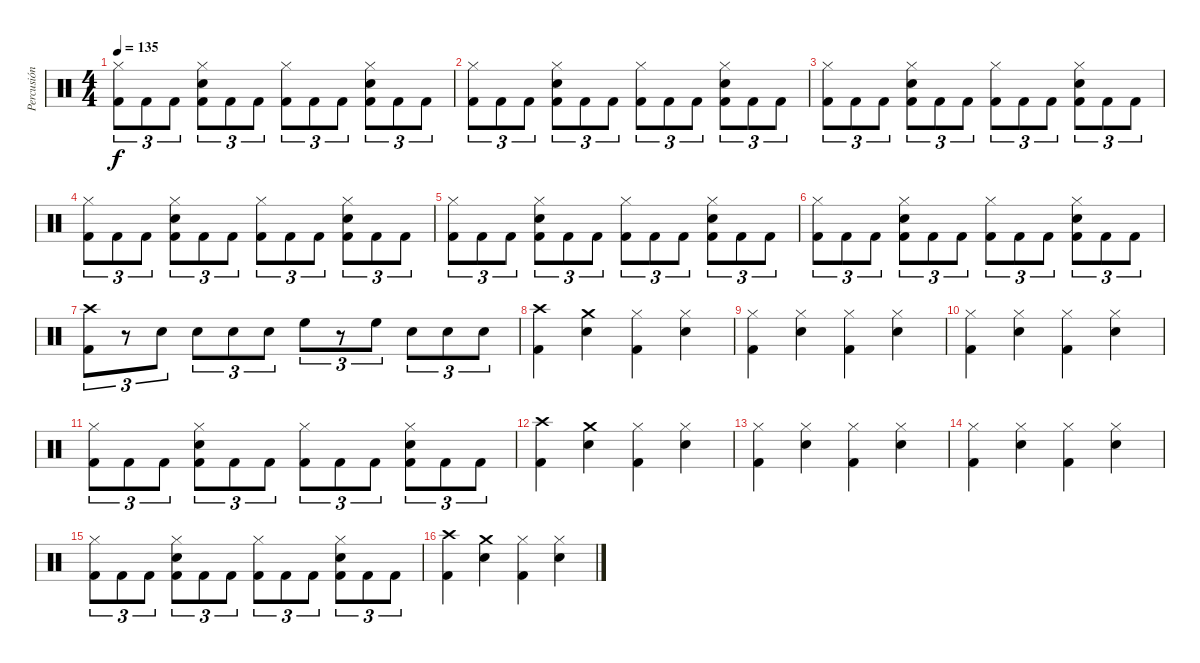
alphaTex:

\track ("Percusión" "Percusión") {instrument percussion}
\staff {score}
\articulation defaults
\ts (4 4)
\tempo 135
\clef neutral
\ks c
("Hi-Hat (closed)" "Kick (hit) 2").8{tu (3 2) dy f} "Kick (hit) 2".8{tu (3 2)} "Kick (hit) 2".8{tu (3 2)} ("Hi-Hat (closed)" "Snare (hit) 2" "Kick (hit) 2").8{tu (3 2)} "Kick (hit) 2".8{tu (3 2)} "Kick (hit) 2".8{tu (3 2)} ("Hi-Hat (closed)" "Kick (hit) 2").8{tu (3 2)} "Kick (hit) 2".8{tu (3 2)} "Kick (hit) 2".8{tu (3 2)} ("Hi-Hat (closed)" "Snare (hit) 2" "Kick (hit) 2").8{tu (3 2)} "Kick (hit) 2".8{tu (3 2)} "Kick (hit) 2".8{tu (3 2)} |
("Hi-Hat (closed)" "Kick (hit) 2").8{tu (3 2)} "Kick (hit) 2".8{tu (3 2)} "Kick (hit) 2".8{tu (3 2)} ("Hi-Hat (closed)" "Snare (hit) 2" "Kick (hit) 2").8{tu (3 2)} "Kick (hit) 2".8{tu (3 2)} "Kick (hit) 2".8{tu (3 2)} ("Hi-Hat (closed)" "Kick (hit) 2").8{tu (3 2)} "Kick (hit) 2".8{tu (3 2)} "Kick (hit) 2".8{tu (3 2)} ("Hi-Hat (closed)" "Snare (hit) 2" "Kick (hit) 2").8{tu (3 2)} "Kick (hit) 2".8{tu (3 2)} "Kick (hit) 2".8{tu (3 2)} |
("Hi-Hat (closed)" "Kick (hit) 2").8{tu (3 2)} "Kick (hit) 2".8{tu (3 2)} "Kick (hit) 2".8{tu (3 2)} ("Hi-Hat (closed)" "Snare (hit) 2" "Kick (hit) 2").8{tu (3 2)} "Kick (hit) 2".8{tu (3 2)} "Kick (hit) 2".8{tu (3 2)} ("Hi-Hat (closed)" "Kick (hit) 2").8{tu (3 2)} "Kick (hit) 2".8{tu (3 2)} "Kick (hit) 2".8{tu (3 2)} ("Hi-Hat (closed)" "Snare (hit) 2" "Kick (hit) 2").8{tu (3 2)} "Kick (hit) 2".8{tu (3 2)} "Kick (hit) 2".8{tu (3 2)} |
("Hi-Hat (closed)" "Kick (hit) 2").8{tu (3 2)} "Kick (hit) 2".8{tu (3 2)} "Kick (hit) 2".8{tu (3 2)} ("Hi-Hat (closed)" "Snare (hit) 2" "Kick (hit) 2").8{tu (3 2)} "Kick (hit) 2".8{tu (3 2)} "Kick (hit) 2".8{tu (3 2)} ("Hi-Hat (closed)" "Kick (hit) 2").8{tu (3 2)} "Kick (hit) 2".8{tu (3 2)} "Kick (hit) 2".8{tu (3 2)} ("Hi-Hat (closed)" "Snare (hit) 2" "Kick (hit) 2").8{tu (3 2)} "Kick (hit) 2".8{tu (3 2)} "Kick (hit) 2".8{tu (3 2)} |
("Hi-Hat (closed)" "Kick (hit) 2").8{tu (3 2)} "Kick (hit) 2".8{tu (3 2)} "Kick (hit) 2".8{tu (3 2)} ("Hi-Hat (closed)" "Snare (hit) 2" "Kick (hit) 2").8{tu (3 2)} "Kick (hit) 2".8{tu (3 2)} "Kick (hit) 2".8{tu (3 2)} ("Hi-Hat (closed)" "Kick (hit) 2").8{tu (3 2)} "Kick (hit) 2".8{tu (3 2)} "Kick (hit) 2".8{tu (3 2)} ("Hi-Hat (closed)" "Snare (hit) 2" "Kick (hit) 2").8{tu (3 2)} "Kick (hit) 2".8{tu (3 2)} "Kick (hit) 2".8{tu (3 2)} |
("Hi-Hat (closed)" "Kick (hit) 2").8{tu (3 2)} "Kick (hit) 2".8{tu (3 2)} "Kick (hit) 2".8{tu (3 2)} ("Hi-Hat (closed)" "Snare (hit) 2" "Kick (hit) 2").8{tu (3 2)} "Kick (hit) 2".8{tu (3 2)} "Kick (hit) 2".8{tu (3 2)} ("Hi-Hat (closed)" "Kick (hit) 2").8{tu (3 2)} "Kick (hit) 2".8{tu (3 2)} "Kick (hit) 2".8{tu (3 2)} ("Hi-Hat (closed)" "Snare (hit) 2" "Kick (hit) 2").8{tu (3 2)} "Kick (hit) 2".8{tu (3 2)} "Kick (hit) 2".8{tu (3 2)} |
("Crash high (hit)" "Kick (hit) 2").8{tu (3 2)} r.8{tu (3 2)} "Snare (hit) 2".8{tu (3 2)} "Snare (hit) 2".8{tu (3 2)} "Snare (hit) 2".8{tu (3 2)} "Snare (hit) 2".8{tu (3 2)} "High Floor Tom (hit)".8{tu (3 2)} r.8{tu (3 2)} "High Floor Tom (hit)".8{tu (3 2)} "Snare (hit) 2".8{tu (3 2)} "Snare (hit) 2".8{tu (3 2)} "Snare (hit) 2".8{tu (3 2)} |
("Crash high (hit)" "Kick (hit) 2").4 ("Crash medium (hit)" "Snare (hit) 2").4 ("Hi-Hat (closed)" "Kick (hit) 2").4 ("Hi-Hat (closed)" "Snare (hit) 2").4 |
("Hi-Hat (closed)" "Kick (hit) 2").4 ("Hi-Hat (closed)" "Snare (hit) 2").4 ("Hi-Hat (closed)" "Kick (hit) 2").4 ("Hi-Hat (closed)" "Snare (hit) 2").4 |
("Hi-Hat (closed)" "Kick (hit) 2").4 ("Hi-Hat (closed)" "Snare (hit) 2").4 ("Hi-Hat (closed)" "Kick (hit) 2").4 ("Hi-Hat (closed)" "Snare (hit) 2").4 |
("Hi-Hat (closed)" "Kick (hit) 2").8{tu (3 2)} "Kick (hit) 2".8{tu (3 2)} "Kick (hit) 2".8{tu (3 2)} ("Hi-Hat (closed)" "Snare (hit) 2" "Kick (hit) 2").8{tu (3 2)} "Kick (hit) 2".8{tu (3 2)} "Kick (hit) 2".8{tu (3 2)} ("Hi-Hat (closed)" "Kick (hit) 2").8{tu (3 2)} "Kick (hit) 2".8{tu (3 2)} "Kick (hit) 2".8{tu (3 2)} ("Hi-Hat (closed)" "Snare (hit) 2" "Kick (hit) 2").8{tu (3 2)} "Kick (hit) 2".8{tu (3 2)} "Kick (hit) 2".8{tu (3 2)} |
("Crash high (hit)" "Kick (hit) 2").4 ("Crash medium (hit)" "Snare (hit) 2").4 ("Hi-Hat (closed)" "Kick (hit) 2").4 ("Hi-Hat (closed)" "Snare (hit) 2").4 |
("Hi-Hat (closed)" "Kick (hit) 2").4 ("Hi-Hat (closed)" "Snare (hit) 2").4 ("Hi-Hat (closed)" "Kick (hit) 2").4 ("Hi-Hat (closed)" "Snare (hit) 2").4 |
("Hi-Hat (closed)" "Kick (hit) 2").4 ("Hi-Hat (closed)" "Snare (hit) 2").4 ("Hi-Hat (closed)" "Kick (hit) 2").4 ("Hi-Hat (closed)" "Snare (hit) 2").4 |
("Hi-Hat (closed)" "Kick (hit) 2").8{tu (3 2)} "Kick (hit) 2".8{tu (3 2)} "Kick (hit) 2".8{tu (3 2)} ("Hi-Hat (closed)" "Snare (hit) 2" "Kick (hit) 2").8{tu (3 2)} "Kick (hit) 2".8{tu (3 2)} "Kick (hit) 2".8{tu (3 2)} ("Hi-Hat (closed)" "Kick (hit) 2").8{tu (3 2)} "Kick (hit) 2".8{tu (3 2)} "Kick (hit) 2".8{tu (3 2)} ("Hi-Hat (closed)" "Snare (hit) 2" "Kick (hit) 2").8{tu (3 2)} "Kick (hit) 2".8{tu (3 2)} "Kick (hit) 2".8{tu (3 2)} |
("Crash high (hit)" "Kick (hit) 2").4 ("Crash medium (hit)" "Snare (hit) 2").4 ("Hi-Hat (closed)" "Kick (hit) 2").4 ("Hi-Hat (closed)" "Snare (hit) 2").4
